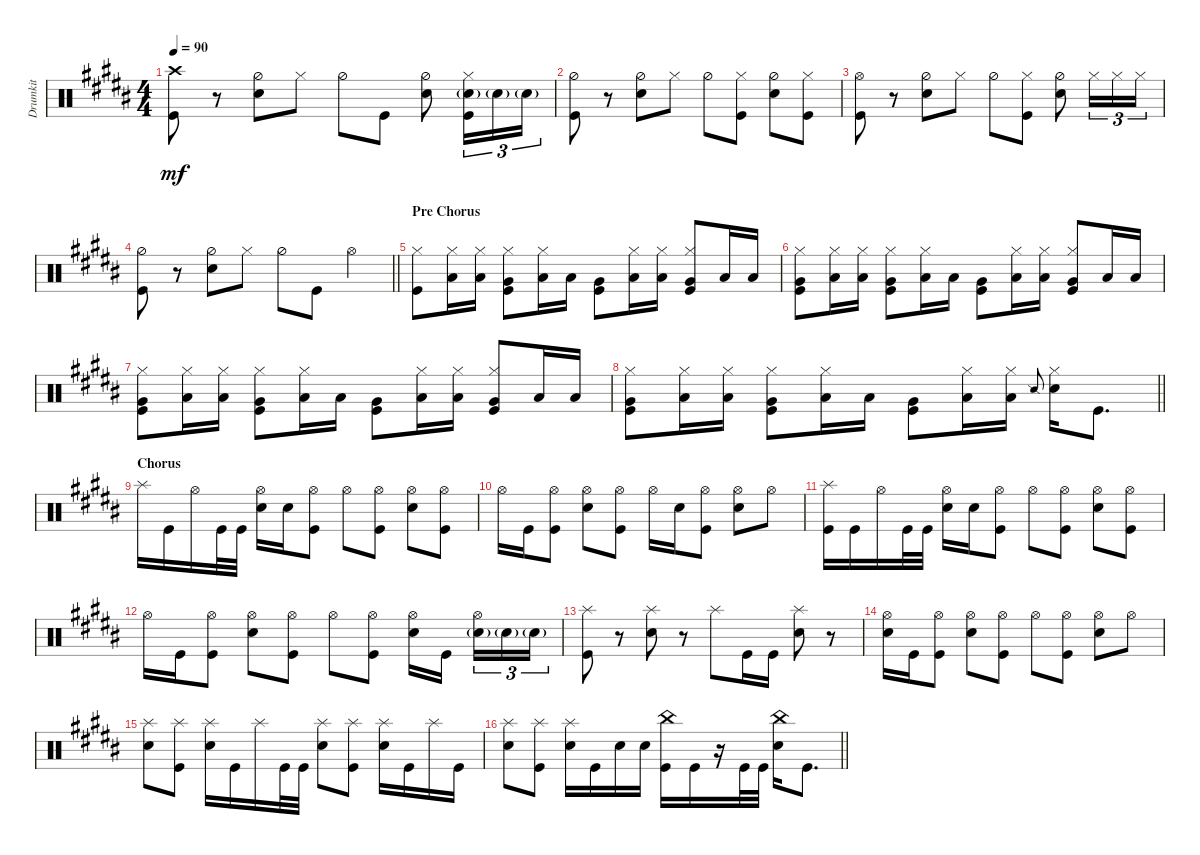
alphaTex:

\track ("Drumkit" "Drumkit") {instrument percussion}
\staff {score}
\articulation defaults
\ts (4 4)
\tempo 90
\clef neutral
\ks b
("Kick (hit)" "Crash high (hit)").8{dy mf} r.8 ("Snare (hit) 2" "Hi-Hat (half)").8 "Hi-Hat (closed)".8 "Hi-Hat (half)".8 "Kick (hit)".8 ("Snare (hit) 2" "Hi-Hat (half)").8 ("Snare (hit) 2"{g} "Hi-Hat (closed)" "Kick (hit)").16{tu (3 2)} "Snare (hit) 2"{g}.16{tu (3 2)} "Snare (hit) 2"{g}.16{tu (3 2)} |
("Kick (hit)" "Hi-Hat (half)").8 r.8 ("Snare (hit) 2" "Hi-Hat (half)").8 "Hi-Hat (closed)".8 "Hi-Hat (half)".8 ("Kick (hit)" "Hi-Hat (closed)").8 ("Snare (hit) 2" "Hi-Hat (half)").8 ("Hi-Hat (closed)" "Kick (hit)").8 |
("Kick (hit)" "Hi-Hat (open)").8 r.8 ("Snare (hit) 2" "Hi-Hat (half)").8 "Hi-Hat (closed)".8 "Hi-Hat (half)".8 ("Kick (hit)" "Hi-Hat (closed)").8 ("Snare (hit) 2" "Hi-Hat (half)").8 "Hi-Hat (closed)".16{tu (3 2)} "Hi-Hat (closed)".16{tu (3 2)} "Hi-Hat (closed)".16{tu (3 2)} |
\barLineRight lightlight
("Kick (hit)" "Hi-Hat (half)").8 r.8 ("Snare (hit) 2" "Hi-Hat (half)").8 "Hi-Hat (closed)".8 "Hi-Hat (half)".8 "Kick (hit)".8 "Hi-Hat (open)".4 |
\section ("" "Pre Chorus")
("Hi-Hat (closed)" "Kick (hit)").8 ("Hi-Hat (closed)" "Low Tom (hit)").16 ("Hi-Hat (closed)" "Low Tom (hit)").16 ("Hi-Hat (closed)" "Kick (hit)" "Very Low Tom (hit)").8 ("Hi-Hat (closed)" "Low Tom (hit)").16 "Low Tom (hit)".16 ("Kick (hit)" "Very Low Tom (hit)").8 ("Hi-Hat (closed)" "Low Tom (hit)").16 ("Hi-Hat (closed)" "Low Tom (hit)").16 ("Hi-Hat (closed)" "Kick (hit)" "Very Low Tom (hit)").8 "Low Tom (hit)".16 "Low Tom (hit)".16 |
("Hi-Hat (closed)" "Kick (hit)" "Very Low Tom (hit)").8 ("Hi-Hat (closed)" "Low Tom (hit)").16 ("Hi-Hat (closed)" "Low Tom (hit)").16 ("Hi-Hat (closed)" "Kick (hit)" "Very Low Tom (hit)").8 ("Hi-Hat (closed)" "Low Tom (hit)").16 "Low Tom (hit)".16 ("Kick (hit)" "Very Low Tom (hit)").8 ("Hi-Hat (closed)" "Low Tom (hit)").16 ("Hi-Hat (closed)" "Low Tom (hit)").16 ("Hi-Hat (closed)" "Kick (hit)" "Very Low Tom (hit)").8 "Low Tom (hit)".16 "Low Tom (hit)".16 |
("Hi-Hat (closed)" "Kick (hit)" "Very Low Tom (hit)").8 ("Hi-Hat (closed)" "Low Tom (hit)").16 ("Hi-Hat (closed)" "Low Tom (hit)").16 ("Hi-Hat (closed)" "Kick (hit)" "Very Low Tom (hit)").8 ("Hi-Hat (closed)" "Low Tom (hit)").16 "Low Tom (hit)".16 ("Kick (hit)" "Very Low Tom (hit)").8 ("Hi-Hat (closed)" "Low Tom (hit)").16 ("Hi-Hat (closed)" "Low Tom (hit)").16 ("Hi-Hat (closed)" "Kick (hit)" "Very Low Tom (hit)").8 "Low Tom (hit)".16 "Low Tom (hit)".16 |
\barLineRight lightlight
("Hi-Hat (closed)" "Kick (hit)" "Very Low Tom (hit)").8 ("Hi-Hat (closed)" "Low Tom (hit)").16 ("Hi-Hat (closed)" "Low Tom (hit)").16 ("Hi-Hat (closed)" "Kick (hit)" "Very Low Tom (hit)").8 ("Hi-Hat (closed)" "Low Tom (hit)").16 "Low Tom (hit)".16 ("Kick (hit)" "Very Low Tom (hit)").8 ("Hi-Hat (closed)" "Low Tom (hit)").16 ("Hi-Hat (closed)" "Low Tom (hit)").16 "Snare (side stick) 2".8{gr onbeat} ("Hi-Hat (closed)" "Snare (hit) 2").16 "Kick (hit)".8{d} |
\section ("" "Chorus")
"Splash (hit)".16 "Kick (hit)".16 "Hi-Hat (open)".16 "Kick (hit)".32 "Kick (hit)".32 ("Snare (hit) 2" "Hi-Hat (open)").16 "Snare (hit) 2".16 ("Kick (hit)" "Hi-Hat (open)").8 "Hi-Hat (open)".8 ("Kick (hit)" "Hi-Hat (open)").8 ("Snare (hit) 2" "Hi-Hat (open)").8 ("Kick (hit)" "Hi-Hat (open)").8 |
"Hi-Hat (open)".16 "Kick (hit)".16 ("Hi-Hat (open)" "Kick (hit)").8 ("Snare (hit) 2" "Hi-Hat (open)").8 ("Kick (hit)" "Hi-Hat (open)").8 "Hi-Hat (open)".16 "Snare (hit) 2".16 ("Kick (hit)" "Hi-Hat (open)").8 ("Snare (hit) 2" "Hi-Hat (open)").8 "Hi-Hat (open)".8 |
("Splash (hit)" "Kick (hit)").16 "Kick (hit)".16 "Hi-Hat (open)".16 "Kick (hit)".32 "Kick (hit)".32 ("Snare (hit) 2" "Hi-Hat (open)").16 "Snare (hit) 2".16 ("Kick (hit)" "Hi-Hat (open)").8 "Hi-Hat (open)".8 ("Kick (hit)" "Hi-Hat (open)").8 ("Snare (hit) 2" "Hi-Hat (open)").8 ("Kick (hit)" "Hi-Hat (open)").8 |
"Hi-Hat (open)".16 "Kick (hit)".16 ("Hi-Hat (open)" "Kick (hit)").8 ("Snare (hit) 2" "Hi-Hat (open)").8 ("Kick (hit)" "Hi-Hat (open)").8 "Hi-Hat (open)".8 ("Kick (hit)" "Hi-Hat (open)").8 ("Snare (hit) 2" "Hi-Hat (open)").16 "Kick (hit)".16 ("Hi-Hat (open)" "Snare (hit) 2"{g}).16{tu (3 2)} "Snare (hit) 2"{g}.16{tu (3 2)} "Snare (hit) 2"{g}.16{tu (3 2)} |
("Splash (hit)" "Kick (hit)").8 r.8 ("Splash (hit)" "Snare (hit) 2").8 r.8 "Splash (hit)".8 "Kick (hit)".16 "Kick (hit)".16 ("Splash (hit)" "Snare (hit) 2").8 r.8 |
("Hi-Hat (open)" "Snare (hit) 2").16 "Kick (hit)".16 ("Hi-Hat (open)" "Kick (hit)").8 ("Snare (hit) 2" "Hi-Hat (open)").8 ("Kick (hit)" "Hi-Hat (open)").8 "Hi-Hat (open)".8 ("Kick (hit)" "Hi-Hat (open)").8 ("Snare (hit) 2" "Hi-Hat (open)").8 "Hi-Hat (open)".8 |
("Splash (hit)" "Snare (hit) 2").8 ("Splash (hit)" "Kick (hit)").8 ("Splash (hit)" "Snare (hit) 2").16 "Kick (hit)".16 "Splash (hit)".16 "Kick (hit)".32 "Kick (hit)".32 ("Splash (hit)" "Snare (hit) 2").8 ("Splash (hit)" "Kick (hit)").8 ("Splash (hit)" "Snare (hit) 2").16 "Kick (hit)".16 "Splash (hit)".16 "Kick (hit)".16 |
\barLineRight lightlight
("Snare (hit) 2" "Splash (hit)").8 ("Kick (hit)" "Splash (hit)").8 ("Snare (hit) 2" "Splash (hit)").16 "Kick (hit)".16 "Snare (hit) 2".16 "Snare (hit) 2".16 ("Kick (hit)" "China (hit)").16 "Kick (hit)".16 r.16 "Kick (hit)".32 "Kick (hit)".32 ("Snare (hit) 2" "China (hit)").16 "Kick (hit)".8{d}
